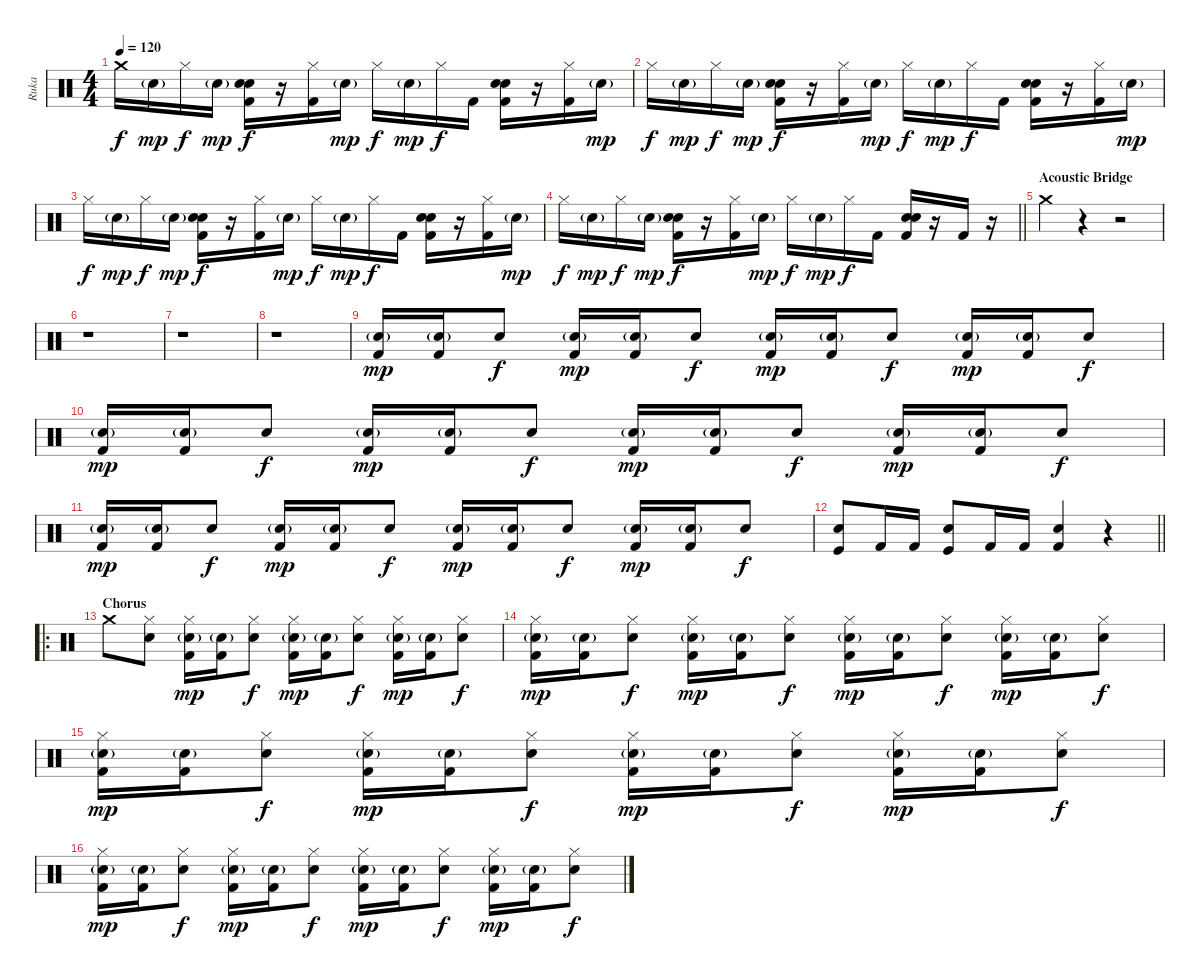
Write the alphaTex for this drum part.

\track ("Ruka" "Ruka") {instrument percussion}
\staff {score}
\articulation defaults
\ts (4 4)
\tempo 120
\clef neutral
\ks c "Crash medium (hit)".16{dy f} "Snare (hit) 2"{g}.16{dy mp} "Hi-Hat (closed)".16{dy f} "Snare (hit) 2"{g}.16{dy mp}
("Kick (hit) 2" "Snare (hit) 2" "Snare (hit) 2").16{dy f} r.16 ("Kick (hit) 2" "Hi-Hat (closed)").16 "Snare (hit) 2"{g}.16{dy mp} "Hi-Hat (closed)".16{dy f} "Snare (hit) 2"{g}.16{dy mp} "Hi-Hat (closed)".16{dy f} "Kick (hit) 2".16 ("Kick (hit) 2" "Snare (hit) 2" "Snare (hit) 2").16 r.16 ("Kick (hit) 2" "Hi-Hat (closed)").16 "Snare (hit) 2"{g}.16{dy mp} |
"Hi-Hat (closed)".16{dy f} "Snare (hit) 2"{g}.16{dy mp} "Hi-Hat (closed)".16{dy f} "Snare (hit) 2"{g}.16{dy mp} ("Kick (hit) 2" "Snare (hit) 2" "Snare (hit) 2").16{dy f} r.16 ("Kick (hit) 2" "Hi-Hat (closed)").16 "Snare (hit) 2"{g}.16{dy mp} "Hi-Hat (closed)".16{dy f} "Snare (hit) 2"{g}.16{dy mp} "Hi-Hat (closed)".16{dy f} "Kick (hit) 2".16 ("Kick (hit) 2" "Snare (hit) 2" "Snare (hit) 2").16 r.16 ("Kick (hit) 2" "Hi-Hat (closed)").16 "Snare (hit) 2"{g}.16{dy mp} |
"Hi-Hat (closed)".16{dy f} "Snare (hit) 2"{g}.16{dy mp} "Hi-Hat (closed)".16{dy f} "Snare (hit) 2"{g}.16{dy mp} ("Kick (hit) 2" "Snare (hit) 2" "Snare (hit) 2").16{dy f} r.16 ("Kick (hit) 2" "Hi-Hat (closed)").16 "Snare (hit) 2"{g}.16{dy mp} "Hi-Hat (closed)".16{dy f} "Snare (hit) 2"{g}.16{dy mp} "Hi-Hat (closed)".16{dy f} "Kick (hit) 2".16 ("Kick (hit) 2" "Snare (hit) 2" "Snare (hit) 2").16 r.16 ("Kick (hit) 2" "Hi-Hat (closed)").16 "Snare (hit) 2"{g}.16{dy mp} |
\barLineRight lightlight "Hi-Hat (closed)".16{dy f} "Snare (hit) 2"{g}.16{dy mp} "Hi-Hat (closed)".16{dy f} "Snare (hit) 2"{g}.16{dy mp}
("Kick (hit) 2" "Snare (hit) 2" "Snare (hit) 2").16{dy f} r.16 ("Kick (hit) 2" "Hi-Hat (closed)").16 "Snare (hit) 2"{g}.16{dy mp} "Hi-Hat (closed)".16{dy f} "Snare (hit) 2"{g}.16{dy mp} "Hi-Hat (closed)".16{dy f} "Kick (hit) 2".16 ("Kick (hit) 2" "Snare (hit) 2" "Snare (hit) 2").16 r.16 "Kick (hit) 2".16 r.16 |
\section ("" "Acoustic Bridge")
"Crash medium (hit)".4 r.4 r.2 |
r.1 |
r.1 |
r.1 |
("Kick (hit) 2" "Snare (hit) 2"{g}).16{dy mp} ("Kick (hit) 2" "Snare (hit) 2"{g}).16 "Snare (hit) 2".8{dy f} ("Kick (hit) 2" "Snare (hit) 2"{g}).16{dy mp} ("Kick (hit) 2" "Snare (hit) 2"{g}).16 "Snare (hit) 2".8{dy f} ("Kick (hit) 2" "Snare (hit) 2"{g}).16{dy mp} ("Kick (hit) 2" "Snare (hit) 2"{g}).16 "Snare (hit) 2".8{dy f} ("Kick (hit) 2" "Snare (hit) 2"{g}).16{dy mp} ("Kick (hit) 2" "Snare (hit) 2"{g}).16 "Snare (hit) 2".8{dy f} |
("Kick (hit) 2" "Snare (hit) 2"{g}).16{dy mp} ("Kick (hit) 2" "Snare (hit) 2"{g}).16 "Snare (hit) 2".8{dy f} ("Kick (hit) 2" "Snare (hit) 2"{g}).16{dy mp} ("Kick (hit) 2" "Snare (hit) 2"{g}).16 "Snare (hit) 2".8{dy f} ("Kick (hit) 2" "Snare (hit) 2"{g}).16{dy mp} ("Kick (hit) 2" "Snare (hit) 2"{g}).16 "Snare (hit) 2".8{dy f} ("Kick (hit) 2" "Snare (hit) 2"{g}).16{dy mp} ("Kick (hit) 2" "Snare (hit) 2"{g}).16 "Snare (hit) 2".8{dy f} |
("Kick (hit) 2" "Snare (hit) 2"{g}).16{dy mp} ("Kick (hit) 2" "Snare (hit) 2"{g}).16 "Snare (hit) 2".8{dy f} ("Kick (hit) 2" "Snare (hit) 2"{g}).16{dy mp} ("Kick (hit) 2" "Snare (hit) 2"{g}).16 "Snare (hit) 2".8{dy f} ("Kick (hit) 2" "Snare (hit) 2"{g}).16{dy mp} ("Kick (hit) 2" "Snare (hit) 2"{g}).16 "Snare (hit) 2".8{dy f} ("Kick (hit) 2" "Snare (hit) 2"{g}).16{dy mp} ("Kick (hit) 2" "Snare (hit) 2"{g}).16 "Snare (hit) 2".8{dy f} |
\barLineRight lightlight
("Kick (hit)" "Snare (hit) 2").8 "Kick (hit) 2".16 "Kick (hit) 2".16 ("Kick (hit)" "Snare (hit) 2").8 "Kick (hit) 2".16 "Kick (hit) 2".16 ("Kick (hit) 2" "Snare (hit) 2").4 r.4 |
\ro
\section ("" "Chorus")
"Crash medium (hit)".8 ("Snare (hit) 2" "Hi-Hat (closed)").8 ("Kick (hit) 2" "Snare (hit) 2"{g} "Hi-Hat (closed)").16{dy mp} ("Kick (hit) 2" "Snare (hit) 2"{g}).16 ("Snare (hit) 2" "Hi-Hat (closed)").8{dy f} ("Kick (hit) 2" "Snare (hit) 2"{g} "Hi-Hat (closed)").16{dy mp} ("Kick (hit) 2" "Snare (hit) 2"{g}).16 ("Snare (hit) 2" "Hi-Hat (closed)").8{dy f} ("Kick (hit) 2" "Snare (hit) 2"{g} "Hi-Hat (closed)").16{dy mp} ("Kick (hit) 2" "Snare (hit) 2"{g}).16 ("Snare (hit) 2" "Hi-Hat (closed)").8{dy f} |
("Kick (hit) 2" "Snare (hit) 2"{g} "Hi-Hat (closed)").16{dy mp} ("Kick (hit) 2" "Snare (hit) 2"{g}).16 ("Snare (hit) 2" "Hi-Hat (closed)").8{dy f} ("Kick (hit) 2" "Snare (hit) 2"{g} "Hi-Hat (closed)").16{dy mp} ("Kick (hit) 2" "Snare (hit) 2"{g}).16 ("Snare (hit) 2" "Hi-Hat (closed)").8{dy f} ("Kick (hit) 2" "Snare (hit) 2"{g} "Hi-Hat (closed)").16{dy mp} ("Kick (hit) 2" "Snare (hit) 2"{g}).16 ("Snare (hit) 2" "Hi-Hat (closed)").8{dy f} ("Kick (hit) 2" "Snare (hit) 2"{g} "Hi-Hat (closed)").16{dy mp} ("Kick (hit) 2" "Snare (hit) 2"{g}).16 ("Snare (hit) 2" "Hi-Hat (closed)").8{dy f} |
("Kick (hit) 2" "Snare (hit) 2"{g} "Hi-Hat (closed)").16{dy mp} ("Kick (hit) 2" "Snare (hit) 2"{g}).16 ("Snare (hit) 2" "Hi-Hat (closed)").8{dy f} ("Kick (hit) 2" "Snare (hit) 2"{g} "Hi-Hat (closed)").16{dy mp} ("Kick (hit) 2" "Snare (hit) 2"{g}).16 ("Snare (hit) 2" "Hi-Hat (closed)").8{dy f} ("Kick (hit) 2" "Snare (hit) 2"{g} "Hi-Hat (closed)").16{dy mp} ("Kick (hit) 2" "Snare (hit) 2"{g}).16 ("Snare (hit) 2" "Hi-Hat (closed)").8{dy f} ("Kick (hit) 2" "Snare (hit) 2"{g} "Hi-Hat (closed)").16{dy mp} ("Kick (hit) 2" "Snare (hit) 2"{g}).16 ("Snare (hit) 2" "Hi-Hat (closed)").8{dy f} |
("Kick (hit) 2" "Snare (hit) 2"{g} "Hi-Hat (closed)").16{dy mp} ("Kick (hit) 2" "Snare (hit) 2"{g}).16 ("Snare (hit) 2" "Hi-Hat (closed)").8{dy f} ("Kick (hit) 2" "Snare (hit) 2"{g} "Hi-Hat (closed)").16{dy mp} ("Kick (hit) 2" "Snare (hit) 2"{g}).16 ("Snare (hit) 2" "Hi-Hat (closed)").8{dy f} ("Kick (hit) 2" "Snare (hit) 2"{g} "Hi-Hat (closed)").16{dy mp} ("Kick (hit) 2" "Snare (hit) 2"{g}).16 ("Snare (hit) 2" "Hi-Hat (closed)").8{dy f} ("Kick (hit) 2" "Snare (hit) 2"{g} "Hi-Hat (closed)").16{dy mp} ("Kick (hit) 2" "Snare (hit) 2"{g}).16 ("Snare (hit) 2" "Hi-Hat (closed)").8{dy f}
